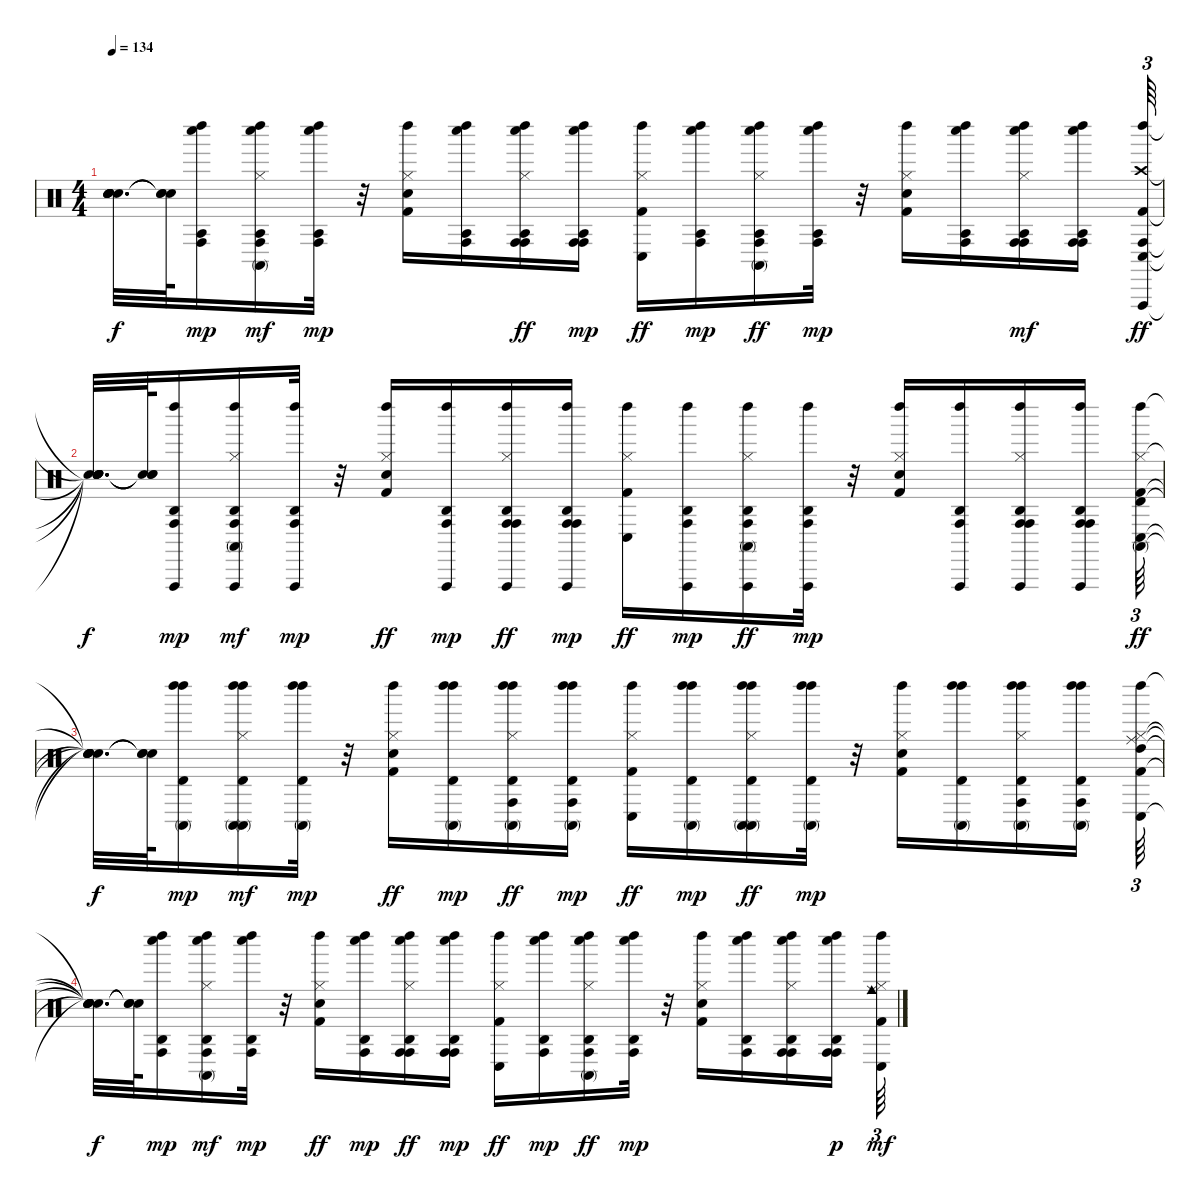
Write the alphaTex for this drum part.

\track "" {instrument percussion}
\staff {score}
\articulation defaults
\ts (4 4)
\tempo 134
\clef neutral
\ks c
("Snare (hit)"{t} "Snare (hit)"{t} "Snare (hit)"{t} "Snare (hit)"{t} "Snare (hit)"{t} "Snare (hit)"{t}).32{d dy f} ("Snare (hit)"{t} "Snare (hit)"{t} "Snare (hit)"{t}).64 ("Whistle low (hit)" "Agogo tow (hit)" "Conga high (hit)" "Left Maraca (hit)").16{dy mp} ("Whistle low (hit)" "Agogo tow (hit)" "Conga high (hit)" "Hi-Hat (closed)" "Conga high (mute)" "Left Maraca (hit)").16{dy mf} ("Whistle low (hit)" "Agogo tow (hit)" "Conga high (hit)" "Left Maraca (hit)").32{dy mp} r.32 ("Kick (hit) 2" "Snare (hit) 2" "Hi-Hat (closed)" "Left Maraca (hit)").16 ("Whistle low (hit)" "Agogo tow (hit)" "Conga high (hit)" "Left Maraca (hit)").16 ("Whistle low (hit)" "Agogo tow (hit)" "Conga high (hit)" "Left Maraca (hit)" "Conga high (hit)" "Hi-Hat (closed)").16{dy ff} ("Whistle low (hit)" "Agogo tow (hit)" "Conga high (hit)" "Conga high (hit)" "Left Maraca (hit)").16{dy mp} ("Left Maraca (hit)" "Conga low (hit)" "Hi-Hat (closed)" "Kick (hit) 2").16{dy ff} ("Whistle low (hit)" "Agogo tow (hit)" "Conga high (hit)" "Left Maraca (hit)").16{dy mp} ("Whistle low (hit)" "Agogo tow (hit)" "Conga high (hit)" "Left Maraca (hit)" "Conga high (mute)" "Hi-Hat (closed)").16{dy ff} ("Whistle low (hit)" "Agogo tow (hit)" "Conga high (hit)" "Left Maraca (hit)").32{dy mp} r.32 ("Kick (hit) 2" "Snare (hit) 2" "Hi-Hat (closed)" "Left Maraca (hit)").16 ("Whistle low (hit)" "Agogo tow (hit)" "Conga high (hit)" "Left Maraca (hit)").16 ("Whistle low (hit)" "Agogo tow (hit)" "Conga high (hit)" "Hi-Hat (closed)" "Conga high (hit)" "Left Maraca (hit)").16{dy mf} ("Whistle low (hit)" "Agogo tow (hit)" "Conga high (hit)" "Left Maraca (hit)" "Conga high (hit)").16 ("Kick (hit) 2" "Crash high (hit)" "Conga low (hit)" "Left Maraca (hit)" "Conga high (hit)" "Vibraslap (hit)").64{tu (3 2) dy ff} |
("Snare (hit)"{t} "Snare (hit)"{t} "Snare (hit)"{t} "Snare (hit)"{t} "Snare (hit)"{t} "Snare (hit)"{t}).32{d dy f} ("Snare (hit)"{t} "Snare (hit)"{t} "Snare (hit)"{t}).64 ("Agogo high (hit)" "Conga high (hit)" "Vibraslap (hit)" "Left Maraca (hit)").16{dy mp} ("Agogo high (hit)" "Conga high (hit)" "Vibraslap (hit)" "Hi-Hat (closed)" "Conga high (mute)" "Left Maraca (hit)").16{dy mf} ("Agogo high (hit)" "Conga high (hit)" "Vibraslap (hit)" "Left Maraca (hit)").32{dy mp} r.32 ("Left Maraca (hit)" "Hi-Hat (closed)" "Snare (hit) 2" "Kick (hit) 2").16{dy ff} ("Agogo high (hit)" "Conga high (hit)" "Vibraslap (hit)" "Left Maraca (hit)").16{dy mp} ("Agogo high (hit)" "Conga high (hit)" "Vibraslap (hit)" "Left Maraca (hit)" "Conga high (hit)" "Hi-Hat (closed)").16{dy ff} ("Agogo high (hit)" "Conga high (hit)" "Vibraslap (hit)" "Conga high (hit)" "Left Maraca (hit)").16{dy mp} ("Left Maraca (hit)" "Conga low (hit)" "Hi-Hat (closed)" "Kick (hit) 2").16{dy ff} ("Agogo high (hit)" "Conga high (hit)" "Vibraslap (hit)" "Left Maraca (hit)").16{dy mp} ("Agogo high (hit)" "Conga high (hit)" "Vibraslap (hit)" "Left Maraca (hit)" "Conga high (mute)" "Hi-Hat (closed)").16{dy ff} ("Vibraslap (hit)" "Conga high (hit)" "Agogo high (hit)" "Left Maraca (hit)").32{dy mp} r.32 ("Kick (hit) 2" "Snare (hit) 2" "Hi-Hat (closed)" "Left Maraca (hit)").16 ("Agogo high (hit)" "Conga high (hit)" "Vibraslap (hit)" "Left Maraca (hit)").16 ("Agogo high (hit)" "Conga high (hit)" "Vibraslap (hit)" "Hi-Hat (closed)" "Conga high (hit)" "Left Maraca (hit)").16 ("Agogo high (hit)" "Conga high (hit)" "Vibraslap (hit)" "Left Maraca (hit)" "Conga high (hit)").16 ("Kick (hit) 2" "Hi-Hat (closed)" "Conga low (hit)" "Left Maraca (hit)" "Timbale high (hit)" "Conga high (mute)").64{tu (3 2) dy ff} |
("Snare (hit)"{t} "Snare (hit)"{t} "Snare (hit)"{t} "Snare (hit)"{t} "Snare (hit)"{t} "Snare (hit)"{t}).32{d dy f} ("Snare (hit)"{t} "Snare (hit)"{t} "Snare (hit)"{t}).64 ("Left Maraca (hit)" "Timbale high (hit)" "Conga high (mute)" "Left Maraca (hit)").16{dy mp} ("Left Maraca (hit)" "Timbale high (hit)" "Conga high (mute)" "Hi-Hat (closed)" "Conga high (mute)" "Left Maraca (hit)").16{dy mf} ("Left Maraca (hit)" "Timbale high (hit)" "Conga high (mute)" "Left Maraca (hit)").32{dy mp} r.32 ("Left Maraca (hit)" "Hi-Hat (closed)" "Snare (hit) 2" "Kick (hit) 2").16{dy ff} ("Left Maraca (hit)" "Timbale high (hit)" "Conga high (mute)" "Left Maraca (hit)").16{dy mp} ("Left Maraca (hit)" "Timbale high (hit)" "Conga high (mute)" "Left Maraca (hit)" "Conga high (hit)" "Hi-Hat (closed)").16{dy ff} ("Left Maraca (hit)" "Timbale high (hit)" "Conga high (mute)" "Conga high (hit)" "Left Maraca (hit)").16{dy mp} ("Left Maraca (hit)" "Conga low (hit)" "Hi-Hat (closed)" "Kick (hit) 2").16{dy ff} ("Left Maraca (hit)" "Timbale high (hit)" "Conga high (mute)" "Left Maraca (hit)").16{dy mp} ("Left Maraca (hit)" "Timbale high (hit)" "Conga high (mute)" "Left Maraca (hit)" "Conga high (mute)" "Hi-Hat (closed)").16{dy ff} ("Left Maraca (hit)" "Timbale high (hit)" "Conga high (mute)" "Left Maraca (hit)").32{dy mp} r.32 ("Kick (hit) 2" "Snare (hit) 2" "Hi-Hat (closed)" "Left Maraca (hit)").16 ("Left Maraca (hit)" "Timbale high (hit)" "Conga high (mute)" "Left Maraca (hit)").16 ("Left Maraca (hit)" "Timbale high (hit)" "Conga high (mute)" "Hi-Hat (closed)" "Conga high (hit)" "Left Maraca (hit)").16 ("Left Maraca (hit)" "Timbale high (hit)" "Conga high (mute)" "Left Maraca (hit)" "Conga high (hit)").16 ("Kick (hit) 2" "Hi-Hat (closed)" "Conga low (hit)" "Left Maraca (hit)" "High Tom (hit)" "Ride (middle)").64{tu (3 2)} |
("Snare (hit)"{t} "Snare (hit)"{t} "Snare (hit)"{t} "Snare (hit)"{t} "Snare (hit)"{t} "Snare (hit)"{t}).32{d dy f} ("Snare (hit)"{t} "Snare (hit)"{t} "Snare (hit)"{t}).64 ("Whistle low (hit)" "Agogo high (hit)" "Conga high (hit)" "Left Maraca (hit)").16{dy mp} ("Conga high (hit)" "Agogo high (hit)" "Whistle low (hit)" "Hi-Hat (closed)" "Conga high (mute)" "Left Maraca (hit)").16{dy mf} ("Whistle low (hit)" "Agogo high (hit)" "Conga high (hit)" "Left Maraca (hit)").32{dy mp} r.32 ("Left Maraca (hit)" "Hi-Hat (closed)" "Snare (hit) 2" "Kick (hit) 2").16{dy ff} ("Whistle low (hit)" "Agogo high (hit)" "Conga high (hit)" "Left Maraca (hit)").16{dy mp} ("Whistle low (hit)" "Agogo high (hit)" "Conga high (hit)" "Left Maraca (hit)" "Conga high (hit)" "Hi-Hat (closed)").16{dy ff} ("Whistle low (hit)" "Agogo high (hit)" "Conga high (hit)" "Conga high (hit)" "Left Maraca (hit)").16{dy mp} ("Left Maraca (hit)" "Conga low (hit)" "Hi-Hat (closed)" "Kick (hit) 2").16{dy ff} ("Whistle low (hit)" "Agogo high (hit)" "Conga high (hit)" "Left Maraca (hit)").16{dy mp} ("Whistle low (hit)" "Agogo high (hit)" "Conga high (hit)" "Left Maraca (hit)" "Conga high (mute)" "Hi-Hat (closed)").16{dy ff} ("Whistle low (hit)" "Agogo high (hit)" "Conga high (hit)" "Left Maraca (hit)").32{dy mp} r.32 ("Kick (hit) 2" "Snare (hit) 2" "Hi-Hat (closed)" "Left Maraca (hit)").16 ("Whistle low (hit)" "Agogo high (hit)" "Conga high (hit)" "Left Maraca (hit)").16 ("Whistle low (hit)" "Agogo high (hit)" "Conga high (hit)" "Hi-Hat (closed)" "Conga high (hit)" "Left Maraca (hit)").16 ("Whistle low (hit)" "Agogo high (hit)" "Conga high (hit)" "Left Maraca (hit)" "Conga high (hit)").16{dy p} ("Kick (hit) 2" "Hi-Hat (closed)" "Conga low (hit)" "Left Maraca (hit)" "Ride (middle)" "Cowbell medium (hit)").64{tu (3 2) dy mf}
